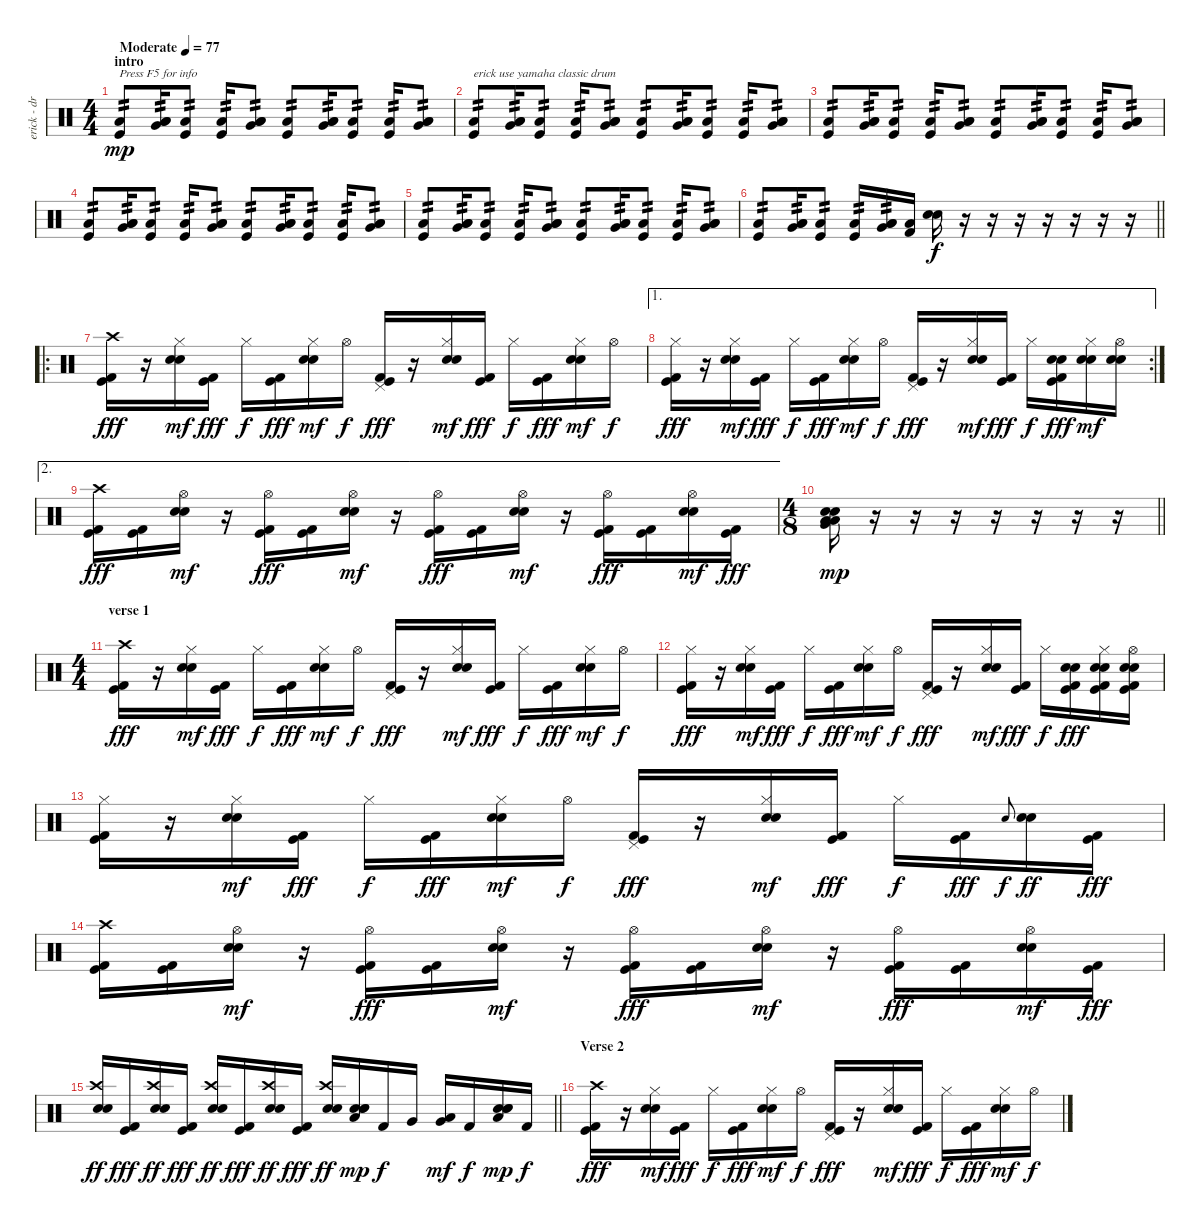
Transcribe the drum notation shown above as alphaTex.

\track ("erick - drum" "erick - dr") {instrument percussion}
\staff {score}
\articulation defaults
\ts (4 4)
\section ("" "intro")
\tempo (77 "Moderate")
\clef neutral
\ks c
("Low Floor Tom (hit)" "Kick (hit)").8{txt "Press F5 for info" tp 2 dy mp} ("Very Low Tom (hit)" "Low Tom (hit)" "Low Floor Tom (hit)").16{tp 2} ("Low Floor Tom (hit)" "Kick (hit)").8{tp 2} ("Low Floor Tom (hit)" "Kick (hit)").16{tp 2} ("Very Low Tom (hit)" "Low Tom (hit)" "Low Floor Tom (hit)").8{tp 2} ("Low Floor Tom (hit)" "Kick (hit)").8{tp 2} ("Very Low Tom (hit)" "Low Tom (hit)" "Low Floor Tom (hit)").16{tp 2} ("Low Floor Tom (hit)" "Kick (hit)").8{tp 2} ("Low Floor Tom (hit)" "Kick (hit)").16{tp 2} ("Very Low Tom (hit)" "Low Tom (hit)" "Low Floor Tom (hit)").8{tp 2} |
("Low Floor Tom (hit)" "Kick (hit)").8{txt "erick use yamaha classic drum" tp 2} ("Very Low Tom (hit)" "Low Tom (hit)" "Low Floor Tom (hit)").16{tp 2} ("Low Floor Tom (hit)" "Kick (hit)").8{tp 2} ("Low Floor Tom (hit)" "Kick (hit)").16{tp 2} ("Very Low Tom (hit)" "Low Tom (hit)" "Low Floor Tom (hit)").8{tp 2} ("Low Floor Tom (hit)" "Kick (hit)").8{tp 2} ("Very Low Tom (hit)" "Low Tom (hit)" "Low Floor Tom (hit)").16{tp 2} ("Low Floor Tom (hit)" "Kick (hit)").8{tp 2} ("Low Floor Tom (hit)" "Kick (hit)").16{tp 2} ("Very Low Tom (hit)" "Low Tom (hit)" "Low Floor Tom (hit)").8{tp 2} |
("Low Floor Tom (hit)" "Kick (hit)").8{tp 2} ("Very Low Tom (hit)" "Low Tom (hit)" "Low Floor Tom (hit)").16{tp 2} ("Low Floor Tom (hit)" "Kick (hit)").8{tp 2} ("Low Floor Tom (hit)" "Kick (hit)").16{tp 2} ("Very Low Tom (hit)" "Low Tom (hit)" "Low Floor Tom (hit)").8{tp 2} ("Low Floor Tom (hit)" "Kick (hit)").8{tp 2} ("Very Low Tom (hit)" "Low Tom (hit)" "Low Floor Tom (hit)").16{tp 2} ("Low Floor Tom (hit)" "Kick (hit)").8{tp 2} ("Low Floor Tom (hit)" "Kick (hit)").16{tp 2} ("Very Low Tom (hit)" "Low Tom (hit)" "Low Floor Tom (hit)").8{tp 2} |
("Low Floor Tom (hit)" "Kick (hit)").8{tp 2} ("Very Low Tom (hit)" "Low Tom (hit)" "Low Floor Tom (hit)").16{tp 2} ("Low Floor Tom (hit)" "Kick (hit)").8{tp 2} ("Low Floor Tom (hit)" "Kick (hit)").16{tp 2} ("Very Low Tom (hit)" "Low Tom (hit)" "Low Floor Tom (hit)").8{tp 2} ("Low Floor Tom (hit)" "Kick (hit)").8{tp 2} ("Very Low Tom (hit)" "Low Tom (hit)" "Low Floor Tom (hit)").16{tp 2} ("Low Floor Tom (hit)" "Kick (hit)").8{tp 2} ("Low Floor Tom (hit)" "Kick (hit)").16{tp 2} ("Very Low Tom (hit)" "Low Tom (hit)" "Low Floor Tom (hit)").8{tp 2} |
("Low Floor Tom (hit)" "Kick (hit)").8{tp 2} ("Very Low Tom (hit)" "Low Tom (hit)" "Low Floor Tom (hit)").16{tp 2} ("Low Floor Tom (hit)" "Kick (hit)").8{tp 2} ("Low Floor Tom (hit)" "Kick (hit)").16{tp 2} ("Very Low Tom (hit)" "Low Tom (hit)" "Low Floor Tom (hit)").8{tp 2} ("Low Floor Tom (hit)" "Kick (hit)").8{tp 2} ("Very Low Tom (hit)" "Low Tom (hit)" "Low Floor Tom (hit)").16{tp 2} ("Low Floor Tom (hit)" "Kick (hit)").8{tp 2} ("Low Floor Tom (hit)" "Kick (hit)").16{tp 2} ("Very Low Tom (hit)" "Low Tom (hit)" "Low Floor Tom (hit)").8{tp 2} |
\barLineRight lightlight
("Low Floor Tom (hit)" "Kick (hit)").8{tp 2} ("Very Low Tom (hit)" "Low Tom (hit)" "Low Floor Tom (hit)").16{tp 2} ("Low Floor Tom (hit)" "Kick (hit)").8{tp 2} ("Low Floor Tom (hit)" "Kick (hit)").16{tp 2} ("Very Low Tom (hit)" "Low Tom (hit)" "Low Floor Tom (hit)").16{tp 2} ("Low Floor Tom (hit)" "Kick (hit) 2").16 ("Electric Snare (hit)" "Electric Snare (hit)").16{bd 120 dy f} r.16 r.16 r.16 r.16 r.16 r.16 r.16 |
\ro
\section ("" "")
("Crash high (hit)" "Kick (hit) 2" "Kick (hit)").16{dy fff} r.16 ("Hi-Hat (closed)" "Snare (hit) 2" "Electric Snare (hit)").16{dy mf} ("Kick (hit) 2" "Kick (hit)").16{dy fff} "Hi-Hat (closed)".16{dy f} ("Kick (hit) 2" "Kick (hit)").16{dy fff} ("Hi-Hat (closed)" "Snare (hit) 2" "Electric Snare (hit)").16{dy mf} "Hi-Hat (open)".16{dy f} ("Pedal Hi-Hat (hit)" "Kick (hit) 2" "Kick (hit)").16{dy fff} r.16 ("Hi-Hat (closed)" "Snare (hit) 2" "Electric Snare (hit)").16{dy mf} ("Kick (hit) 2" "Kick (hit)").16{dy fff} "Hi-Hat (closed)".16{dy f} ("Kick (hit) 2" "Kick (hit)").16{dy fff} ("Hi-Hat (closed)" "Snare (hit) 2" "Electric Snare (hit)").16{dy mf} "Hi-Hat (open)".16{dy f} |
\ae 1
\rc 2
("Hi-Hat (closed)" "Kick (hit) 2" "Kick (hit)").16{dy fff} r.16 ("Hi-Hat (closed)" "Snare (hit) 2" "Electric Snare (hit)").16{dy mf} ("Kick (hit) 2" "Kick (hit)").16{dy fff} "Hi-Hat (closed)".16{dy f} ("Kick (hit) 2" "Kick (hit)").16{dy fff} ("Hi-Hat (closed)" "Snare (hit) 2" "Electric Snare (hit)").16{dy mf} "Hi-Hat (open)".16{dy f} ("Pedal Hi-Hat (hit)" "Kick (hit) 2" "Kick (hit)").16{dy fff} r.16 ("Hi-Hat (closed)" "Snare (hit) 2" "Electric Snare (hit)").16{dy mf} ("Kick (hit) 2" "Kick (hit)").16{dy fff} "Hi-Hat (closed)".16{dy f} ("Snare (hit) 2" "Electric Snare (hit)" "Kick (hit) 2" "Kick (hit)").16{dy fff} ("Hi-Hat (closed)" "Snare (hit) 2" "Electric Snare (hit)").16{dy mf} ("Hi-Hat (open)" "Snare (hit) 2" "Electric Snare (hit)").16 |
\ae 2
("Crash high (hit)" "Kick (hit) 2" "Kick (hit)").16{dy fff} ("Kick (hit) 2" "Kick (hit)").16 ("Hi-Hat (open)" "Snare (hit) 2" "Electric Snare (hit)").16{dy mf} r.16 ("Hi-Hat (open)" "Kick (hit) 2" "Kick (hit)").16{dy fff} ("Kick (hit) 2" "Kick (hit)").16 ("Hi-Hat (open)" "Snare (hit) 2" "Electric Snare (hit)").16{dy mf} r.16 ("Hi-Hat (open)" "Kick (hit) 2" "Kick (hit)").16{dy fff} ("Kick (hit) 2" "Kick (hit)").16 ("Hi-Hat (open)" "Snare (hit) 2" "Electric Snare (hit)").16{dy mf} r.16 ("Hi-Hat (open)" "Kick (hit) 2" "Kick (hit)").16{dy fff} ("Kick (hit) 2" "Kick (hit)").16 ("Hi-Hat (open)" "Snare (hit) 2" "Electric Snare (hit)").16{dy mf} ("Kick (hit) 2" "Kick (hit)").16{dy fff} |
\ts (4 8)
\barLineRight lightlight
("Very Low Tom (hit)" "Low Floor Tom (hit)" "Electric Snare (hit)" "Snare (hit) 2" "Low Floor Tom (hit)").16{dy mp} r.16 r.16 r.16 r.16 r.16 r.16 r.16 |
\ts (4 4)
\section ("" "verse 1")
("Crash high (hit)" "Kick (hit) 2" "Kick (hit)").16{dy fff} r.16 ("Hi-Hat (closed)" "Snare (hit) 2" "Electric Snare (hit)").16{dy mf} ("Kick (hit) 2" "Kick (hit)").16{dy fff} "Hi-Hat (closed)".16{dy f} ("Kick (hit) 2" "Kick (hit)").16{dy fff} ("Hi-Hat (closed)" "Snare (hit) 2" "Electric Snare (hit)").16{dy mf} "Hi-Hat (open)".16{dy f} ("Pedal Hi-Hat (hit)" "Kick (hit) 2" "Kick (hit)").16{dy fff} r.16 ("Hi-Hat (closed)" "Snare (hit) 2" "Electric Snare (hit)").16{dy mf} ("Kick (hit) 2" "Kick (hit)").16{dy fff} "Hi-Hat (closed)".16{dy f} ("Kick (hit) 2" "Kick (hit)").16{dy fff} ("Hi-Hat (closed)" "Snare (hit) 2" "Electric Snare (hit)").16{dy mf} "Hi-Hat (open)".16{dy f} |
("Hi-Hat (closed)" "Kick (hit) 2" "Kick (hit)").16{dy fff} r.16 ("Hi-Hat (closed)" "Snare (hit) 2" "Electric Snare (hit)").16{dy mf} ("Kick (hit) 2" "Kick (hit)").16{dy fff} "Hi-Hat (closed)".16{dy f} ("Kick (hit) 2" "Kick (hit)").16{dy fff} ("Hi-Hat (closed)" "Snare (hit) 2" "Electric Snare (hit)").16{dy mf} "Hi-Hat (open)".16{dy f} ("Pedal Hi-Hat (hit)" "Kick (hit) 2" "Kick (hit)").16{dy fff} r.16 ("Hi-Hat (closed)" "Snare (hit) 2" "Electric Snare (hit)").16{dy mf} ("Kick (hit) 2" "Kick (hit)").16{dy fff} "Hi-Hat (closed)".16{dy f} ("Snare (hit) 2" "Electric Snare (hit)" "Kick (hit) 2" "Kick (hit)").16{dy fff} ("Hi-Hat (closed)" "Snare (hit) 2" "Electric Snare (hit)" "Kick (hit) 2" "Kick (hit)").16 ("Hi-Hat (open)" "Snare (hit) 2" "Electric Snare (hit)" "Kick (hit) 2" "Kick (hit)").16 |
("Hi-Hat (closed)" "Kick (hit) 2" "Kick (hit)").16 r.16 ("Hi-Hat (closed)" "Snare (hit) 2" "Electric Snare (hit)").16{dy mf} ("Kick (hit) 2" "Kick (hit)").16{dy fff} "Hi-Hat (closed)".16{dy f} ("Kick (hit) 2" "Kick (hit)").16{dy fff} ("Hi-Hat (closed)" "Snare (hit) 2" "Electric Snare (hit)").16{dy mf} "Hi-Hat (open)".16{dy f} ("Pedal Hi-Hat (hit)" "Kick (hit) 2" "Kick (hit)").16{dy fff} r.16 ("Hi-Hat (closed)" "Snare (hit) 2" "Electric Snare (hit)").16{dy mf} ("Kick (hit) 2" "Kick (hit)").16{dy fff} "Hi-Hat (closed)".16{dy f} ("Kick (hit) 2" "Kick (hit)").16{dy fff} "Electric Snare (hit)"{h}.8{gr onbeat dy f} ("Snare (hit) 2" "Electric Snare (hit)").16{dy ff} ("Kick (hit) 2" "Kick (hit)").16{dy fff} |
("Crash high (hit)" "Kick (hit) 2" "Kick (hit)").16 ("Kick (hit) 2" "Kick (hit)").16 ("Hi-Hat (open)" "Snare (hit) 2" "Electric Snare (hit)").16{dy mf} r.16 ("Hi-Hat (open)" "Kick (hit) 2" "Kick (hit)").16{dy fff} ("Kick (hit) 2" "Kick (hit)").16 ("Hi-Hat (open)" "Snare (hit) 2" "Electric Snare (hit)").16{dy mf} r.16 ("Hi-Hat (open)" "Kick (hit) 2" "Kick (hit)").16{dy fff} ("Kick (hit) 2" "Kick (hit)").16 ("Hi-Hat (open)" "Snare (hit) 2" "Electric Snare (hit)").16{dy mf} r.16 ("Hi-Hat (open)" "Kick (hit) 2" "Kick (hit)").16{dy fff} ("Kick (hit) 2" "Kick (hit)").16 ("Hi-Hat (open)" "Snare (hit) 2" "Electric Snare (hit)").16{dy mf} ("Kick (hit) 2" "Kick (hit)").16{dy fff} |
\barLineRight lightlight
("Crash high (hit)" "Snare (hit) 2" "Electric Snare (hit)").16{dy ff} ("Kick (hit) 2" "Kick (hit)").16{dy fff} ("Crash high (hit)" "Snare (hit) 2" "Electric Snare (hit)").16{dy ff} ("Kick (hit) 2" "Kick (hit)").16{dy fff} ("Crash high (hit)" "Snare (hit) 2" "Electric Snare (hit)").16{dy ff} ("Kick (hit) 2" "Kick (hit)").16{dy fff} ("Crash high (hit)" "Snare (hit) 2" "Electric Snare (hit)").16{dy ff} ("Kick (hit) 2" "Kick (hit)").16{dy fff} ("Crash high (hit)" "Snare (hit) 2" "Electric Snare (hit)").16{dy ff} ("Snare (hit) 2" "Electric Snare (hit)" "Electric Snare (hit)" "Low Tom (hit)").16{dy mp} "Kick (hit) 2".16{dy f} "Very Low Tom (hit)".16 ("Very Low Tom (hit)" "Low Floor Tom (hit)").16{bu 120 dy mf} "Kick (hit) 2".16{dy f} ("Snare (hit) 2" "Electric Snare (hit)" "Electric Snare (hit)" "Low Floor Tom (hit)").16{dy mp} "Kick (hit) 2".16{dy f} |
\section ("" "Verse 2")
("Crash high (hit)" "Kick (hit) 2" "Kick (hit)").16{dy fff} r.16 ("Hi-Hat (closed)" "Snare (hit) 2" "Electric Snare (hit)").16{dy mf} ("Kick (hit) 2" "Kick (hit)").16{dy fff} "Hi-Hat (closed)".16{dy f} ("Kick (hit) 2" "Kick (hit)").16{dy fff} ("Hi-Hat (closed)" "Snare (hit) 2" "Electric Snare (hit)").16{dy mf} "Hi-Hat (open)".16{dy f} ("Pedal Hi-Hat (hit)" "Kick (hit) 2" "Kick (hit)").16{dy fff} r.16 ("Hi-Hat (closed)" "Snare (hit) 2" "Electric Snare (hit)").16{dy mf} ("Kick (hit) 2" "Kick (hit)").16{dy fff} "Hi-Hat (closed)".16{dy f} ("Kick (hit) 2" "Kick (hit)").16{dy fff} ("Hi-Hat (closed)" "Snare (hit) 2" "Electric Snare (hit)").16{dy mf} "Hi-Hat (open)".16{dy f}
